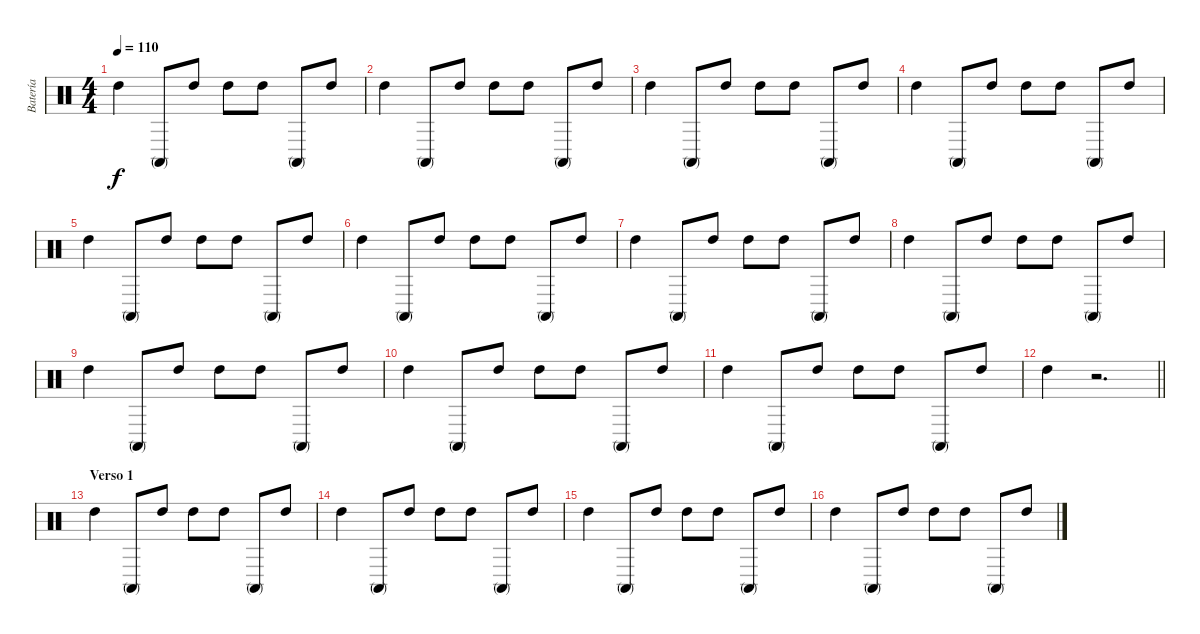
\track ("Batería" "Batería") {instrument percussion}
\staff {score}
\articulation defaults
\ts (4 4)
\tempo 110
\clef neutral
\ks c "High Tom (hit)".4{dy f} "Conga high (mute)".8 "High Tom (hit)".8 "High Tom (hit)".8 "High Tom (hit)".8 "Conga high (mute)".8 "High Tom (hit)".8
|
"High Tom (hit)".4 "Conga high (mute)".8 "High Tom (hit)".8 "High Tom (hit)".8 "High Tom (hit)".8 "Conga high (mute)".8 "High Tom (hit)".8 |
"High Tom (hit)".4 "Conga high (mute)".8 "High Tom (hit)".8 "High Tom (hit)".8 "High Tom (hit)".8 "Conga high (mute)".8 "High Tom (hit)".8 |
"High Tom (hit)".4 "Conga high (mute)".8 "High Tom (hit)".8 "High Tom (hit)".8 "High Tom (hit)".8 "Conga high (mute)".8 "High Tom (hit)".8 |
"High Tom (hit)".4 "Conga high (mute)".8 "High Tom (hit)".8 "High Tom (hit)".8 "High Tom (hit)".8 "Conga high (mute)".8 "High Tom (hit)".8 |
"High Tom (hit)".4 "Conga high (mute)".8 "High Tom (hit)".8 "High Tom (hit)".8 "High Tom (hit)".8 "Conga high (mute)".8 "High Tom (hit)".8 |
"High Tom (hit)".4 "Conga high (mute)".8 "High Tom (hit)".8 "High Tom (hit)".8 "High Tom (hit)".8 "Conga high (mute)".8 "High Tom (hit)".8 |
"High Tom (hit)".4 "Conga high (mute)".8 "High Tom (hit)".8 "High Tom (hit)".8 "High Tom (hit)".8 "Conga high (mute)".8 "High Tom (hit)".8 |
"High Tom (hit)".4 "Conga high (mute)".8 "High Tom (hit)".8 "High Tom (hit)".8 "High Tom (hit)".8 "Conga high (mute)".8 "High Tom (hit)".8 |
"High Tom (hit)".4 "Conga high (mute)".8 "High Tom (hit)".8 "High Tom (hit)".8 "High Tom (hit)".8 "Conga high (mute)".8 "High Tom (hit)".8 |
"High Tom (hit)".4 "Conga high (mute)".8 "High Tom (hit)".8 "High Tom (hit)".8 "High Tom (hit)".8 "Conga high (mute)".8 "High Tom (hit)".8 |
\barLineRight lightlight "High Tom (hit)".4
r.2{d} |
\section ("" "Verso 1")
"High Tom (hit)".4 "Conga high (mute)".8 "High Tom (hit)".8 "High Tom (hit)".8 "High Tom (hit)".8 "Conga high (mute)".8 "High Tom (hit)".8 |
"High Tom (hit)".4 "Conga high (mute)".8 "High Tom (hit)".8 "High Tom (hit)".8 "High Tom (hit)".8 "Conga high (mute)".8 "High Tom (hit)".8 |
"High Tom (hit)".4 "Conga high (mute)".8 "High Tom (hit)".8 "High Tom (hit)".8 "High Tom (hit)".8 "Conga high (mute)".8 "High Tom (hit)".8 |
"High Tom (hit)".4 "Conga high (mute)".8 "High Tom (hit)".8 "High Tom (hit)".8 "High Tom (hit)".8 "Conga high (mute)".8 "High Tom (hit)".8
